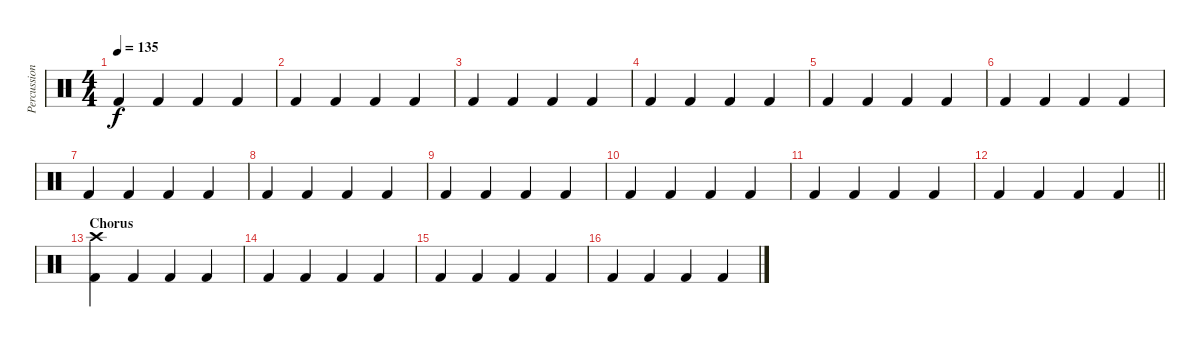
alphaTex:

\track ("Percussion" "Percussion") {instrument percussion}
\staff {score}
\articulation defaults
\ts (4 4)
\tempo 135
\clef neutral
\ks c "Kick (hit) 2".4{dy f} "Kick (hit) 2".4 "Kick (hit) 2".4 "Kick (hit) 2".4
|
"Kick (hit) 2".4 "Kick (hit) 2".4 "Kick (hit) 2".4 "Kick (hit) 2".4 |
"Kick (hit) 2".4 "Kick (hit) 2".4 "Kick (hit) 2".4 "Kick (hit) 2".4 |
"Kick (hit) 2".4 "Kick (hit) 2".4 "Kick (hit) 2".4 "Kick (hit) 2".4 |
"Kick (hit) 2".4 "Kick (hit) 2".4 "Kick (hit) 2".4 "Kick (hit) 2".4 |
"Kick (hit) 2".4 "Kick (hit) 2".4 "Kick (hit) 2".4 "Kick (hit) 2".4 |
"Kick (hit) 2".4 "Kick (hit) 2".4 "Kick (hit) 2".4 "Kick (hit) 2".4 |
"Kick (hit) 2".4 "Kick (hit) 2".4 "Kick (hit) 2".4 "Kick (hit) 2".4 |
"Kick (hit) 2".4 "Kick (hit) 2".4 "Kick (hit) 2".4 "Kick (hit) 2".4 |
"Kick (hit) 2".4 "Kick (hit) 2".4 "Kick (hit) 2".4 "Kick (hit) 2".4 |
"Kick (hit) 2".4 "Kick (hit) 2".4 "Kick (hit) 2".4 "Kick (hit) 2".4 |
\barLineRight lightlight "Kick (hit) 2".4 "Kick (hit) 2".4 "Kick (hit) 2".4 "Kick (hit) 2".4
|
\section ("" "Chorus")
("Kick (hit) 2" "Crash high (hit)").4 "Kick (hit) 2".4 "Kick (hit) 2".4 "Kick (hit) 2".4 |
"Kick (hit) 2".4 "Kick (hit) 2".4 "Kick (hit) 2".4 "Kick (hit) 2".4 |
"Kick (hit) 2".4 "Kick (hit) 2".4 "Kick (hit) 2".4 "Kick (hit) 2".4 |
"Kick (hit) 2".4 "Kick (hit) 2".4 "Kick (hit) 2".4 "Kick (hit) 2".4
